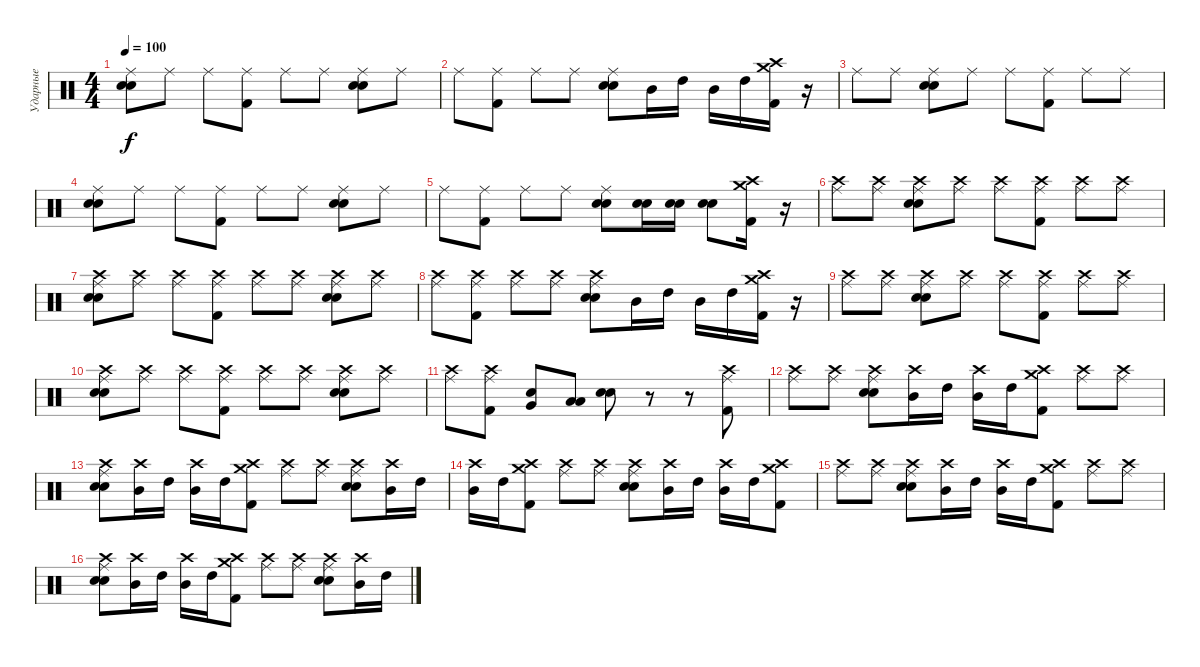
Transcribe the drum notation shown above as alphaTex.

\track ("Ударные" "Ударные") {instrument percussion}
\staff {score}
\articulation defaults
\ts (4 4)
\tempo 100
\clef neutral
\ks c
("Hand Clap (hit)" "Electric Snare (hit)" "Ride (middle)").8{dy f} "Ride (middle)".8 "Ride (middle)".8 ("Kick (hit) 2" "Ride (middle)").8 "Ride (middle)".8 "Ride (middle)".8 ("Hand Clap (hit)" "Electric Snare (hit)" "Ride (middle)").8 "Ride (middle)".8 |
"Ride (middle)".8 ("Kick (hit) 2" "Ride (middle)").8 "Ride (middle)".8 "Ride (middle)".8 ("Hand Clap (hit)" "Electric Snare (hit)" "Ride (middle)").8 "Mid Tom (hit)".16 "High Tom (hit)".16 "Mid Tom (hit)".16 "High Tom (hit)".16 ("Crash medium (hit)" "Crash high (hit)" "Kick (hit) 2").16 r.16 |
"Ride (middle)".8 "Ride (middle)".8 ("Hand Clap (hit)" "Electric Snare (hit)" "Ride (middle)").8 "Ride (middle)".8 "Ride (middle)".8 ("Kick (hit) 2" "Ride (middle)").8 "Ride (middle)".8 "Ride (middle)".8 |
("Hand Clap (hit)" "Electric Snare (hit)" "Ride (middle)").8 "Ride (middle)".8 "Ride (middle)".8 ("Kick (hit) 2" "Ride (middle)").8 "Ride (middle)".8 "Ride (middle)".8 ("Hand Clap (hit)" "Electric Snare (hit)" "Ride (middle)").8 "Ride (middle)".8 |
"Ride (middle)".8 ("Kick (hit) 2" "Ride (middle)").8 "Ride (middle)".8 "Ride (middle)".8 ("Hand Clap (hit)" "Electric Snare (hit)" "Ride (middle)").8 ("Hand Clap (hit)" "Snare (hit) 2").16 ("Hand Clap (hit)" "Snare (hit) 2").16 ("Hand Clap (hit)" "Snare (hit) 2").8 ("Crash medium (hit)" "Crash high (hit)" "Kick (hit) 2").16 r.16 |
("Crash high (hit)" "Ride (middle)").8 ("Crash high (hit)" "Ride (middle)").8 ("Crash high (hit)" "Hand Clap (hit)" "Electric Snare (hit)" "Ride (middle)").8 ("Crash high (hit)" "Ride (middle)").8 ("Crash high (hit)" "Ride (middle)").8 ("Crash high (hit)" "Kick (hit) 2" "Ride (middle)").8 ("Crash high (hit)" "Ride (middle)").8 ("Crash high (hit)" "Ride (middle)").8 |
("Crash high (hit)" "Hand Clap (hit)" "Electric Snare (hit)" "Ride (middle)").8 ("Crash high (hit)" "Ride (middle)").8 ("Crash high (hit)" "Ride (middle)").8 ("Crash high (hit)" "Kick (hit) 2" "Ride (middle)").8 ("Crash high (hit)" "Ride (middle)").8 ("Crash high (hit)" "Ride (middle)").8 ("Crash high (hit)" "Hand Clap (hit)" "Electric Snare (hit)" "Ride (middle)").8 ("Crash high (hit)" "Ride (middle)").8 |
("Crash high (hit)" "Ride (middle)").8 ("Crash high (hit)" "Kick (hit) 2" "Ride (middle)").8 ("Crash high (hit)" "Ride (middle)").8 ("Crash high (hit)" "Ride (middle)").8 ("Crash high (hit)" "Hand Clap (hit)" "Electric Snare (hit)" "Ride (middle)").8 "Mid Tom (hit)".16 "High Tom (hit)".16 "Mid Tom (hit)".16 "High Tom (hit)".16 ("Crash medium (hit)" "Crash high (hit)" "Kick (hit) 2").16 r.16 |
("Crash high (hit)" "Ride (middle)").8 ("Crash high (hit)" "Ride (middle)").8 ("Crash high (hit)" "Hand Clap (hit)" "Electric Snare (hit)" "Ride (middle)").8 ("Crash high (hit)" "Ride (middle)").8 ("Crash high (hit)" "Ride (middle)").8 ("Crash high (hit)" "Kick (hit) 2" "Ride (middle)").8 ("Crash high (hit)" "Ride (middle)").8 ("Crash high (hit)" "Ride (middle)").8 |
("Crash high (hit)" "Hand Clap (hit)" "Electric Snare (hit)" "Ride (middle)").8 ("Crash high (hit)" "Ride (middle)").8 ("Crash high (hit)" "Ride (middle)").8 ("Crash high (hit)" "Kick (hit) 2" "Ride (middle)").8 ("Crash high (hit)" "Ride (middle)").8 ("Crash high (hit)" "Ride (middle)").8 ("Crash high (hit)" "Hand Clap (hit)" "Electric Snare (hit)" "Ride (middle)").8 ("Crash high (hit)" "Ride (middle)").8 |
("Crash high (hit)" "Ride (middle)").8 ("Crash high (hit)" "Kick (hit) 2" "Ride (middle)").8 ("Very Low Tom (hit)" "Electric Snare (hit)").8 ("Low Tom (hit)" "Low Floor Tom (hit)").8 ("Hand Clap (hit)" "Electric Snare (hit)").8 r.8 r.8 ("Crash high (hit)" "Kick (hit) 2" "Ride (middle)").8 |
("Crash high (hit)" "Ride (middle)").8 ("Crash high (hit)" "Ride (middle)").8 ("Crash high (hit)" "Hand Clap (hit)" "Electric Snare (hit)" "Ride (middle)").8 ("Crash high (hit)" "Mid Tom (hit)").16 "High Tom (hit)".16 ("Crash high (hit)" "Mid Tom (hit)").16 "High Tom (hit)".16 ("Crash medium (hit)" "Crash high (hit)" "Kick (hit) 2").8 ("Crash high (hit)" "Ride (middle)").8 ("Crash high (hit)" "Ride (middle)").8 |
("Crash high (hit)" "Hand Clap (hit)" "Electric Snare (hit)" "Ride (middle)").8 ("Crash high (hit)" "Mid Tom (hit)").16 "High Tom (hit)".16 ("Crash high (hit)" "Mid Tom (hit)").16 "High Tom (hit)".16 ("Crash medium (hit)" "Crash high (hit)" "Kick (hit) 2").8 ("Crash high (hit)" "Ride (middle)").8 ("Crash high (hit)" "Ride (middle)").8 ("Crash high (hit)" "Hand Clap (hit)" "Electric Snare (hit)" "Ride (middle)").8 ("Crash high (hit)" "Mid Tom (hit)").16 "High Tom (hit)".16 |
("Crash high (hit)" "Mid Tom (hit)").16 "High Tom (hit)".16 ("Crash medium (hit)" "Crash high (hit)" "Kick (hit) 2").8 ("Crash high (hit)" "Ride (middle)").8 ("Crash high (hit)" "Ride (middle)").8 ("Crash high (hit)" "Hand Clap (hit)" "Electric Snare (hit)" "Ride (middle)").8 ("Crash high (hit)" "Mid Tom (hit)").16 "High Tom (hit)".16 ("Crash high (hit)" "Mid Tom (hit)").16 "High Tom (hit)".16 ("Crash medium (hit)" "Crash high (hit)" "Kick (hit) 2").8 |
("Crash high (hit)" "Ride (middle)").8 ("Crash high (hit)" "Ride (middle)").8 ("Crash high (hit)" "Hand Clap (hit)" "Electric Snare (hit)" "Ride (middle)").8 ("Crash high (hit)" "Mid Tom (hit)").16 "High Tom (hit)".16 ("Crash high (hit)" "Mid Tom (hit)").16 "High Tom (hit)".16 ("Crash medium (hit)" "Crash high (hit)" "Kick (hit) 2").8 ("Crash high (hit)" "Ride (middle)").8 ("Crash high (hit)" "Ride (middle)").8 |
("Crash high (hit)" "Hand Clap (hit)" "Electric Snare (hit)" "Ride (middle)").8 ("Crash high (hit)" "Mid Tom (hit)").16 "High Tom (hit)".16 ("Crash high (hit)" "Mid Tom (hit)").16 "High Tom (hit)".16 ("Crash medium (hit)" "Crash high (hit)" "Kick (hit) 2").8 ("Crash high (hit)" "Ride (middle)").8 ("Crash high (hit)" "Ride (middle)").8 ("Crash high (hit)" "Hand Clap (hit)" "Electric Snare (hit)" "Ride (middle)").8 ("Crash high (hit)" "Mid Tom (hit)").16 "High Tom (hit)".16
